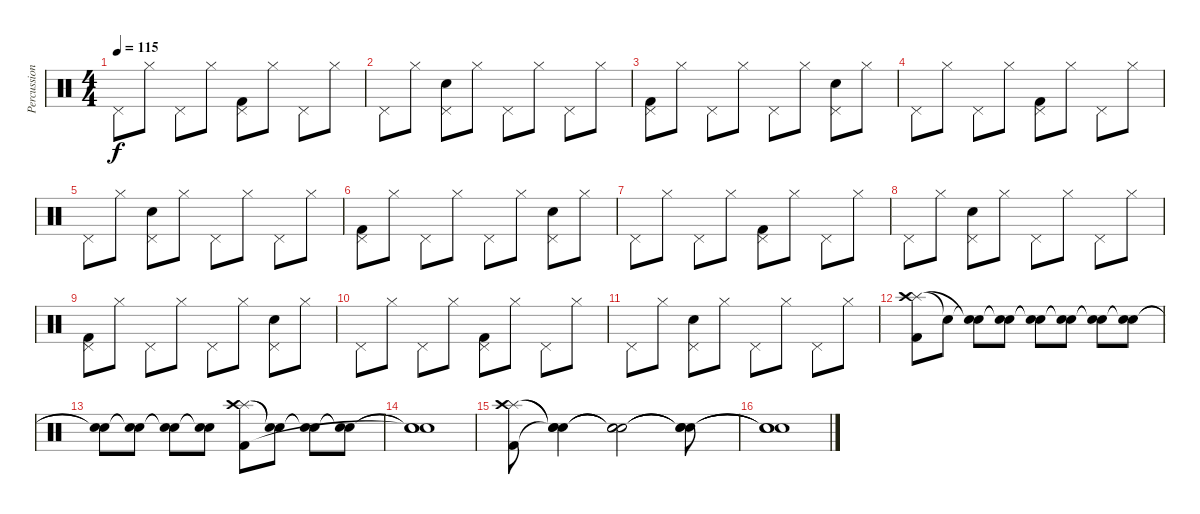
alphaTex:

\track ("Percussion" "Percussion") {instrument percussion}
\staff {score}
\articulation defaults
\ts (4 4)
\tempo 115
\clef neutral
\ks c "Pedal Hi-Hat (hit)".8{dy f} "Hi-Hat (closed)".8 "Pedal Hi-Hat (hit)".8 "Hi-Hat (closed)".8
("Pedal Hi-Hat (hit)" "Kick (hit) 2").8 "Hi-Hat (closed)".8 "Pedal Hi-Hat (hit)".8 "Hi-Hat (closed)".8 |
"Pedal Hi-Hat (hit)".8 "Hi-Hat (closed)".8 ("Pedal Hi-Hat (hit)" "Electric Snare (hit)").8 "Hi-Hat (closed)".8 "Pedal Hi-Hat (hit)".8 "Hi-Hat (closed)".8 "Pedal Hi-Hat (hit)".8 "Hi-Hat (closed)".8 |
("Pedal Hi-Hat (hit)" "Kick (hit) 2").8 "Hi-Hat (closed)".8 "Pedal Hi-Hat (hit)".8 "Hi-Hat (closed)".8 "Pedal Hi-Hat (hit)".8 "Hi-Hat (closed)".8 ("Pedal Hi-Hat (hit)" "Electric Snare (hit)").8 "Hi-Hat (closed)".8 |
"Pedal Hi-Hat (hit)".8 "Hi-Hat (closed)".8 "Pedal Hi-Hat (hit)".8 "Hi-Hat (closed)".8 ("Pedal Hi-Hat (hit)" "Kick (hit) 2").8 "Hi-Hat (closed)".8 "Pedal Hi-Hat (hit)".8 "Hi-Hat (closed)".8 |
"Pedal Hi-Hat (hit)".8 "Hi-Hat (closed)".8 ("Pedal Hi-Hat (hit)" "Electric Snare (hit)").8 "Hi-Hat (closed)".8 "Pedal Hi-Hat (hit)".8 "Hi-Hat (closed)".8 "Pedal Hi-Hat (hit)".8 "Hi-Hat (closed)".8 |
("Pedal Hi-Hat (hit)" "Kick (hit) 2").8 "Hi-Hat (closed)".8 "Pedal Hi-Hat (hit)".8 "Hi-Hat (closed)".8 "Pedal Hi-Hat (hit)".8 "Hi-Hat (closed)".8 ("Pedal Hi-Hat (hit)" "Electric Snare (hit)").8 "Hi-Hat (closed)".8 |
"Pedal Hi-Hat (hit)".8 "Hi-Hat (closed)".8 "Pedal Hi-Hat (hit)".8 "Hi-Hat (closed)".8 ("Pedal Hi-Hat (hit)" "Kick (hit) 2").8 "Hi-Hat (closed)".8 "Pedal Hi-Hat (hit)".8 "Hi-Hat (closed)".8 |
"Pedal Hi-Hat (hit)".8 "Hi-Hat (closed)".8 ("Pedal Hi-Hat (hit)" "Electric Snare (hit)").8 "Hi-Hat (closed)".8 "Pedal Hi-Hat (hit)".8 "Hi-Hat (closed)".8 "Pedal Hi-Hat (hit)".8 "Hi-Hat (closed)".8 |
("Pedal Hi-Hat (hit)" "Kick (hit) 2").8 "Hi-Hat (closed)".8 "Pedal Hi-Hat (hit)".8 "Hi-Hat (closed)".8 "Pedal Hi-Hat (hit)".8 "Hi-Hat (closed)".8 ("Pedal Hi-Hat (hit)" "Electric Snare (hit)").8 "Hi-Hat (closed)".8 |
"Pedal Hi-Hat (hit)".8 "Hi-Hat (closed)".8 "Pedal Hi-Hat (hit)".8 "Hi-Hat (closed)".8 ("Pedal Hi-Hat (hit)" "Kick (hit) 2").8 "Hi-Hat (closed)".8 "Pedal Hi-Hat (hit)".8 "Hi-Hat (closed)".8 |
"Pedal Hi-Hat (hit)".8 "Hi-Hat (closed)".8 ("Pedal Hi-Hat (hit)" "Electric Snare (hit)").8 "Hi-Hat (closed)".8 "Pedal Hi-Hat (hit)".8 "Hi-Hat (closed)".8 "Pedal Hi-Hat (hit)".8 "Hi-Hat (closed)".8 |
("Splash (hit)" "Crash high (hit)" "Kick (hit) 2").8 "Snare (hit)"{t}.8 ("Snare (hit)"{t} "Snare (hit)"{t}).8 ("Snare (hit)"{t} "Snare (hit)"{t}).8 ("Snare (hit)"{t} "Snare (hit)"{t}).8 ("Snare (hit)"{t} "Snare (hit)"{t}).8 ("Snare (hit)"{t} "Snare (hit)"{t}).8 ("Snare (hit)"{t} "Snare (hit)"{t}).8 |
("Snare (hit)"{t} "Snare (hit)"{t}).8 ("Snare (hit)"{t} "Snare (hit)"{t}).8 ("Snare (hit)"{t} "Snare (hit)"{t}).8 ("Snare (hit)"{t} "Snare (hit)"{t}).8 ("Splash (hit)" "Crash high (hit)" "Kick (hit) 2").8 ("Snare (hit)"{t} "Snare (hit)"{t}).8 ("Snare (hit)"{t} "Snare (hit)"{t}).8 ("Snare (hit)"{t} "Snare (hit)"{t}).8 |
("Snare (hit)"{t} "Snare (hit)"{t} "Snare (hit)"{t}).1 |
("Splash (hit)" "Crash high (hit)" "Kick (hit) 2").8 ("Snare (hit)"{t} "Snare (hit)"{t} "Snare (hit)"{t}).4 ("Snare (hit)"{t} "Snare (hit)"{t} "Snare (hit)"{t}).2 ("Snare (hit)"{t} "Snare (hit)"{t} "Snare (hit)"{t}).8 |
("Snare (hit)"{t} "Snare (hit)"{t} "Snare (hit)"{t}).1
